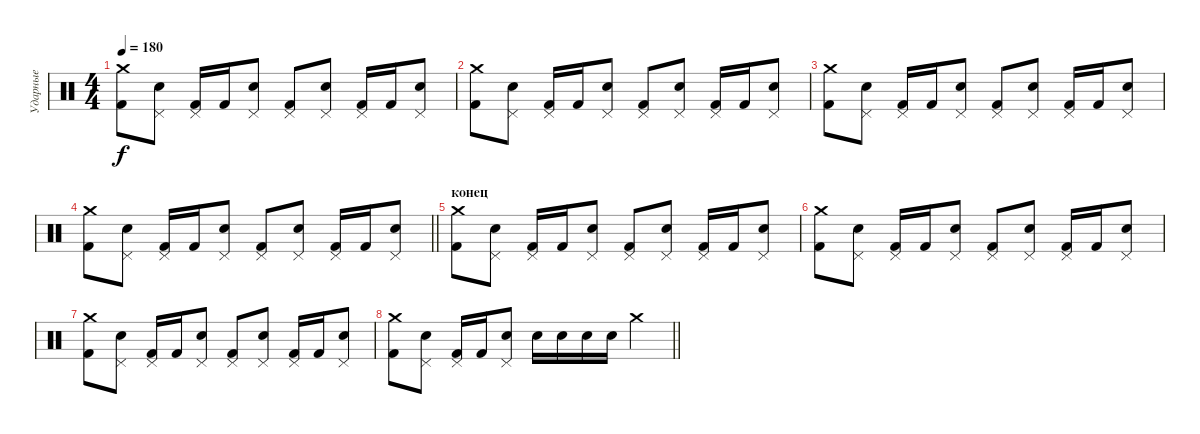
\track ("Ударные" "Ударные") {instrument percussion}
\staff {score}
\articulation defaults
\ts (4 4)
\tempo 180
\clef neutral
\ks c
("Crash medium (hit)" "Kick (hit) 2").8{dy f} ("Pedal Hi-Hat (hit)" "Electric Snare (hit)").8 ("Pedal Hi-Hat (hit)" "Kick (hit) 2").16 "Kick (hit) 2".16 ("Pedal Hi-Hat (hit)" "Electric Snare (hit)").8 ("Pedal Hi-Hat (hit)" "Kick (hit) 2").8 ("Pedal Hi-Hat (hit)" "Electric Snare (hit)").8 ("Pedal Hi-Hat (hit)" "Kick (hit) 2").16 "Kick (hit) 2".16 ("Pedal Hi-Hat (hit)" "Electric Snare (hit)").8 |
("Crash medium (hit)" "Kick (hit) 2").8 ("Pedal Hi-Hat (hit)" "Electric Snare (hit)").8 ("Pedal Hi-Hat (hit)" "Kick (hit) 2").16 "Kick (hit) 2".16 ("Pedal Hi-Hat (hit)" "Electric Snare (hit)").8 ("Pedal Hi-Hat (hit)" "Kick (hit) 2").8 ("Pedal Hi-Hat (hit)" "Electric Snare (hit)").8 ("Pedal Hi-Hat (hit)" "Kick (hit) 2").16 "Kick (hit) 2".16 ("Pedal Hi-Hat (hit)" "Electric Snare (hit)").8 |
("Crash medium (hit)" "Kick (hit) 2").8 ("Pedal Hi-Hat (hit)" "Electric Snare (hit)").8 ("Pedal Hi-Hat (hit)" "Kick (hit) 2").16 "Kick (hit) 2".16 ("Pedal Hi-Hat (hit)" "Electric Snare (hit)").8 ("Pedal Hi-Hat (hit)" "Kick (hit) 2").8 ("Pedal Hi-Hat (hit)" "Electric Snare (hit)").8 ("Pedal Hi-Hat (hit)" "Kick (hit) 2").16 "Kick (hit) 2".16 ("Pedal Hi-Hat (hit)" "Electric Snare (hit)").8 |
\barLineRight lightlight
("Crash medium (hit)" "Kick (hit) 2").8 ("Pedal Hi-Hat (hit)" "Electric Snare (hit)").8 ("Pedal Hi-Hat (hit)" "Kick (hit) 2").16 "Kick (hit) 2".16 ("Pedal Hi-Hat (hit)" "Electric Snare (hit)").8 ("Pedal Hi-Hat (hit)" "Kick (hit) 2").8 ("Pedal Hi-Hat (hit)" "Electric Snare (hit)").8 ("Pedal Hi-Hat (hit)" "Kick (hit) 2").16 "Kick (hit) 2".16 ("Pedal Hi-Hat (hit)" "Electric Snare (hit)").8 |
\section ("" "конец")
("Crash medium (hit)" "Kick (hit) 2").8 ("Pedal Hi-Hat (hit)" "Electric Snare (hit)").8 ("Pedal Hi-Hat (hit)" "Kick (hit) 2").16 "Kick (hit) 2".16 ("Pedal Hi-Hat (hit)" "Electric Snare (hit)").8 ("Pedal Hi-Hat (hit)" "Kick (hit) 2").8 ("Pedal Hi-Hat (hit)" "Electric Snare (hit)").8 ("Pedal Hi-Hat (hit)" "Kick (hit) 2").16 "Kick (hit) 2".16 ("Pedal Hi-Hat (hit)" "Electric Snare (hit)").8 |
("Crash medium (hit)" "Kick (hit) 2").8 ("Pedal Hi-Hat (hit)" "Electric Snare (hit)").8 ("Pedal Hi-Hat (hit)" "Kick (hit) 2").16 "Kick (hit) 2".16 ("Pedal Hi-Hat (hit)" "Electric Snare (hit)").8 ("Pedal Hi-Hat (hit)" "Kick (hit) 2").8 ("Pedal Hi-Hat (hit)" "Electric Snare (hit)").8 ("Pedal Hi-Hat (hit)" "Kick (hit) 2").16 "Kick (hit) 2".16 ("Pedal Hi-Hat (hit)" "Electric Snare (hit)").8 |
("Crash medium (hit)" "Kick (hit) 2").8 ("Pedal Hi-Hat (hit)" "Electric Snare (hit)").8 ("Pedal Hi-Hat (hit)" "Kick (hit) 2").16 "Kick (hit) 2".16 ("Pedal Hi-Hat (hit)" "Electric Snare (hit)").8 ("Pedal Hi-Hat (hit)" "Kick (hit) 2").8 ("Pedal Hi-Hat (hit)" "Electric Snare (hit)").8 ("Pedal Hi-Hat (hit)" "Kick (hit) 2").16 "Kick (hit) 2".16 ("Pedal Hi-Hat (hit)" "Electric Snare (hit)").8 |
\barLineRight lightlight
("Crash medium (hit)" "Kick (hit) 2").8 ("Pedal Hi-Hat (hit)" "Electric Snare (hit)").8 ("Pedal Hi-Hat (hit)" "Kick (hit) 2").16 "Kick (hit) 2".16 ("Pedal Hi-Hat (hit)" "Electric Snare (hit)").8 "Electric Snare (hit)".16 "Electric Snare (hit)".16 "Electric Snare (hit)".16 "Electric Snare (hit)".16 "Crash medium (hit)".4
